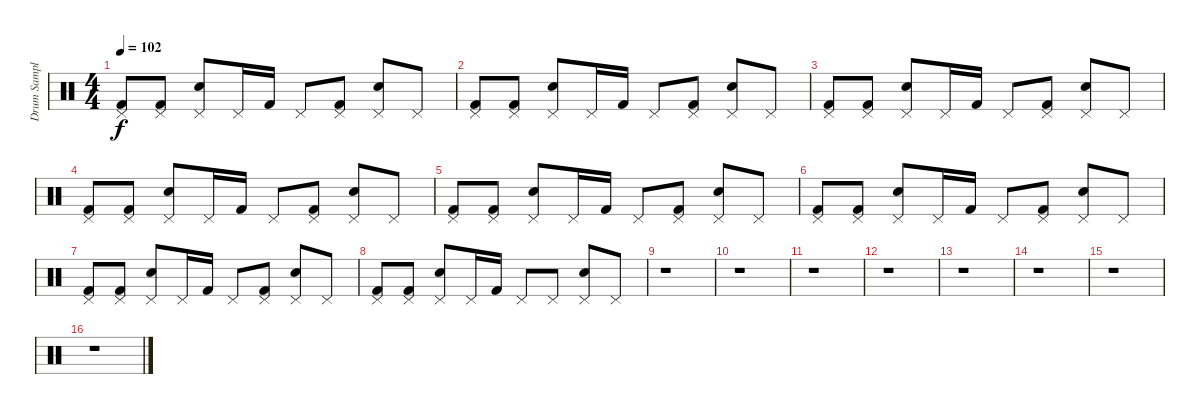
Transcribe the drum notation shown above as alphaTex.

\track ("Drum Sample" "Drum Sampl") {instrument percussion}
\staff {score}
\articulation defaults
\ts (4 4)
\tempo 102
\clef neutral
\ks c
("Pedal Hi-Hat (hit)" "Kick (hit) 2").8{dy f} ("Pedal Hi-Hat (hit)" "Kick (hit) 2").8 ("Pedal Hi-Hat (hit)" "Electric Snare (hit)").8 "Pedal Hi-Hat (hit)".16 "Kick (hit) 2".16 "Pedal Hi-Hat (hit)".8 ("Pedal Hi-Hat (hit)" "Kick (hit) 2").8 ("Pedal Hi-Hat (hit)" "Electric Snare (hit)").8 "Pedal Hi-Hat (hit)".8 |
("Pedal Hi-Hat (hit)" "Kick (hit) 2").8 ("Pedal Hi-Hat (hit)" "Kick (hit) 2").8 ("Pedal Hi-Hat (hit)" "Electric Snare (hit)").8 "Pedal Hi-Hat (hit)".16 "Kick (hit) 2".16 "Pedal Hi-Hat (hit)".8 ("Pedal Hi-Hat (hit)" "Kick (hit) 2").8 ("Pedal Hi-Hat (hit)" "Electric Snare (hit)").8 "Pedal Hi-Hat (hit)".8 |
("Pedal Hi-Hat (hit)" "Kick (hit) 2").8 ("Pedal Hi-Hat (hit)" "Kick (hit) 2").8 ("Pedal Hi-Hat (hit)" "Electric Snare (hit)").8 "Pedal Hi-Hat (hit)".16 "Kick (hit) 2".16 "Pedal Hi-Hat (hit)".8 ("Pedal Hi-Hat (hit)" "Kick (hit) 2").8 ("Pedal Hi-Hat (hit)" "Electric Snare (hit)").8 "Pedal Hi-Hat (hit)".8 |
("Pedal Hi-Hat (hit)" "Kick (hit) 2").8 ("Pedal Hi-Hat (hit)" "Kick (hit) 2").8 ("Pedal Hi-Hat (hit)" "Electric Snare (hit)").8 "Pedal Hi-Hat (hit)".16 "Kick (hit) 2".16 "Pedal Hi-Hat (hit)".8 ("Pedal Hi-Hat (hit)" "Kick (hit) 2").8 ("Pedal Hi-Hat (hit)" "Electric Snare (hit)").8 "Pedal Hi-Hat (hit)".8 |
("Pedal Hi-Hat (hit)" "Kick (hit) 2").8 ("Pedal Hi-Hat (hit)" "Kick (hit) 2").8 ("Pedal Hi-Hat (hit)" "Electric Snare (hit)").8 "Pedal Hi-Hat (hit)".16 "Kick (hit) 2".16 "Pedal Hi-Hat (hit)".8 ("Pedal Hi-Hat (hit)" "Kick (hit) 2").8 ("Pedal Hi-Hat (hit)" "Electric Snare (hit)").8 "Pedal Hi-Hat (hit)".8 |
("Pedal Hi-Hat (hit)" "Kick (hit) 2").8 ("Pedal Hi-Hat (hit)" "Kick (hit) 2").8 ("Pedal Hi-Hat (hit)" "Electric Snare (hit)").8 "Pedal Hi-Hat (hit)".16 "Kick (hit) 2".16 "Pedal Hi-Hat (hit)".8 ("Pedal Hi-Hat (hit)" "Kick (hit) 2").8 ("Pedal Hi-Hat (hit)" "Electric Snare (hit)").8 "Pedal Hi-Hat (hit)".8 |
("Pedal Hi-Hat (hit)" "Kick (hit) 2").8 ("Pedal Hi-Hat (hit)" "Kick (hit) 2").8 ("Pedal Hi-Hat (hit)" "Electric Snare (hit)").8 "Pedal Hi-Hat (hit)".16 "Kick (hit) 2".16 "Pedal Hi-Hat (hit)".8 ("Pedal Hi-Hat (hit)" "Kick (hit) 2").8 ("Pedal Hi-Hat (hit)" "Electric Snare (hit)").8 "Pedal Hi-Hat (hit)".8 |
("Pedal Hi-Hat (hit)" "Kick (hit) 2").8 ("Pedal Hi-Hat (hit)" "Kick (hit) 2").8 ("Pedal Hi-Hat (hit)" "Electric Snare (hit)").8 "Pedal Hi-Hat (hit)".16 "Kick (hit) 2".16 "Pedal Hi-Hat (hit)".8 "Pedal Hi-Hat (hit)".8 ("Pedal Hi-Hat (hit)" "Electric Snare (hit)").8 "Pedal Hi-Hat (hit)".8 |
r.1 |
r.1 |
r.1 |
r.1 |
r.1 |
r.1 |
r.1 |
r.1
